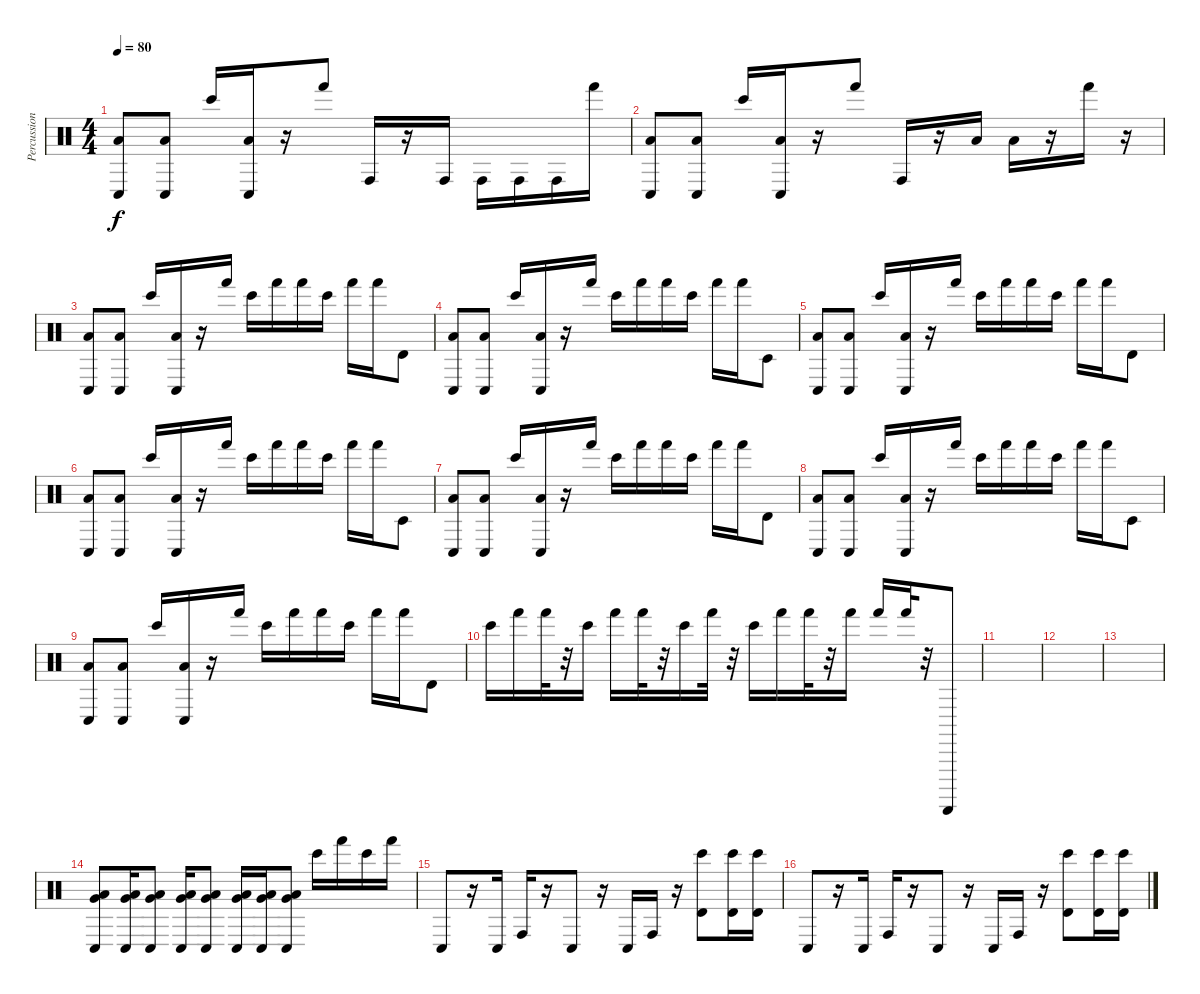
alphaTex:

\track ("Percussion" "Percussion") {instrument percussion}
\staff {score}
\articulation defaults
\ts (4 4)
\tempo 80
\clef neutral
\ks c
("Low Tom (hit)" "Conga low (hit)").8{dy f} ("Low Tom (hit)" "Conga low (hit)").8 "Bongo High (hit)".16 ("Low Tom (hit)" "Conga low (hit)").16 r.16 "Hand (hit)".8 "Conga high (hit)".16 r.16 "Conga high (hit)".16 "Conga high (hit)".16 "Conga high (hit)".16 "Conga high (hit)".16 "Hand (hit)".16 |
("Low Tom (hit)" "Conga low (hit)").8 ("Low Tom (hit)" "Conga low (hit)").8 "Bongo High (hit)".16 ("Low Tom (hit)" "Conga low (hit)").16 r.16 "Hand (hit)".8 "Conga high (hit)".16 r.16 "Low Tom (hit)".16 "Low Tom (hit)".16 r.16 "Hand (hit)".16 r.16 |
("Low Tom (hit)" "Conga low (hit)").8 ("Low Tom (hit)" "Conga low (hit)").8 "Bongo High (hit)".16 ("Low Tom (hit)" "Conga low (hit)").16 r.16 "Hand (hit)".16 "Bongo High (hit)".16 "Hand (hit)".16 "Hand (hit)".16 "Bongo High (hit)".16 "Hand (hit)".16 "Hand (hit)".16 "Timbale high (hit)".8 |
("Low Tom (hit)" "Conga low (hit)").8 ("Low Tom (hit)" "Conga low (hit)").8 "Bongo High (hit)".16 ("Low Tom (hit)" "Conga low (hit)").16 r.16 "Hand (hit)".16 "Bongo High (hit)".16 "Hand (hit)".16 "Hand (hit)".16 "Bongo High (hit)".16 "Hand (hit)".16 "Hand (hit)".16 "Timbale low (hit)".8 |
("Low Tom (hit)" "Conga low (hit)").8 ("Low Tom (hit)" "Conga low (hit)").8 "Bongo High (hit)".16 ("Low Tom (hit)" "Conga low (hit)").16 r.16 "Hand (hit)".16 "Bongo High (hit)".16 "Hand (hit)".16 "Hand (hit)".16 "Bongo High (hit)".16 "Hand (hit)".16 "Hand (hit)".16 "Timbale high (hit)".8 |
("Low Tom (hit)" "Conga low (hit)").8 ("Low Tom (hit)" "Conga low (hit)").8 "Bongo High (hit)".16 ("Low Tom (hit)" "Conga low (hit)").16 r.16 "Hand (hit)".16 "Bongo High (hit)".16 "Hand (hit)".16 "Hand (hit)".16 "Bongo High (hit)".16 "Hand (hit)".16 "Hand (hit)".16 "Timbale low (hit)".8 |
("Low Tom (hit)" "Conga low (hit)").8 ("Low Tom (hit)" "Conga low (hit)").8 "Bongo High (hit)".16 ("Low Tom (hit)" "Conga low (hit)").16 r.16 "Hand (hit)".16 "Bongo High (hit)".16 "Hand (hit)".16 "Hand (hit)".16 "Bongo High (hit)".16 "Hand (hit)".16 "Hand (hit)".16 "Timbale high (hit)".8 |
("Low Tom (hit)" "Conga low (hit)").8 ("Low Tom (hit)" "Conga low (hit)").8 "Bongo High (hit)".16 ("Low Tom (hit)" "Conga low (hit)").16 r.16 "Hand (hit)".16 "Bongo High (hit)".16 "Hand (hit)".16 "Hand (hit)".16 "Bongo High (hit)".16 "Hand (hit)".16 "Hand (hit)".16 "Timbale low (hit)".8 |
("Low Tom (hit)" "Conga low (hit)").8 ("Low Tom (hit)" "Conga low (hit)").8 "Bongo High (hit)".16 ("Low Tom (hit)" "Conga low (hit)").16 r.16 "Hand (hit)".16 "Bongo High (hit)".16 "Hand (hit)".16 "Hand (hit)".16 "Bongo High (hit)".16 "Hand (hit)".16 "Hand (hit)".16 "Timbale high (hit)".8 |
"Bongo High (hit)".16 "Hand (hit)".16 "Hand (hit)".32 r.32 "Bongo High (hit)".16 "Hand (hit)".16 "Hand (hit)".32 r.32 "Bongo High (hit)".16 "Hand (hit)".32 r.32 "Bongo High (hit)".16 "Hand (hit)".16 "Hand (hit)".32 r.32 "Hand (hit)".16 "Hand (hit)".16 "Hand (hit)".32 r.32 "Guiro (scrap-return)".8 |
|
|
|
("Conga low (hit)" "Low Tom (hit)" "Very Low Tom (hit)").8 ("Conga low (hit)" "Low Tom (hit)" "Very Low Tom (hit)").16 ("Conga low (hit)" "Low Tom (hit)" "Very Low Tom (hit)").8 ("Conga low (hit)" "Low Tom (hit)" "Very Low Tom (hit)").16 ("Conga low (hit)" "Low Tom (hit)" "Very Low Tom (hit)").8 ("Conga low (hit)" "Low Tom (hit)" "Very Low Tom (hit)").16 ("Conga low (hit)" "Low Tom (hit)" "Very Low Tom (hit)").16 ("Conga low (hit)" "Low Tom (hit)" "Very Low Tom (hit)").8 "Bongo High (hit)".16 "Hand (hit)".16 "Bongo High (hit)".16 "Hand (hit)".16 |
"Conga low (hit)".8 r.16 "Conga low (hit)".16 "Conga high (hit)".16 r.16 "Conga low (hit)".8 r.16 "Conga low (hit)".16 "Conga high (hit)".16 r.16 ("Bongo High (hit)" "Timbale high (hit)").8 ("Bongo High (hit)" "Timbale high (hit)").16 ("Bongo High (hit)" "Timbale high (hit)").16 |
"Conga low (hit)".8 r.16 "Conga low (hit)".16 "Conga high (hit)".16 r.16 "Conga low (hit)".8 r.16 "Conga low (hit)".16 "Conga high (hit)".16 r.16 ("Bongo High (hit)" "Timbale high (hit)").8 ("Bongo High (hit)" "Timbale high (hit)").16 ("Bongo High (hit)" "Timbale high (hit)").16
